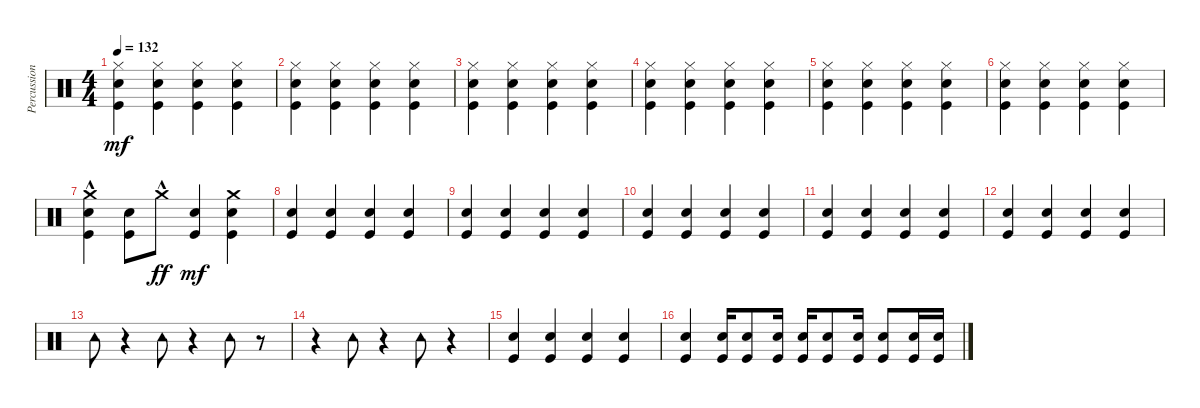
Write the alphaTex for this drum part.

\track ("Percussion" "Percussion") {instrument percussion}
\staff {score}
\articulation defaults
\ts (4 4)
\tempo 132
\clef neutral
\ks c
("Hi-Hat (closed)" "Snare (hit) 2" "Kick (hit)").4{dy mf} ("Hi-Hat (closed)" "Kick (hit)" "Snare (hit) 2").4 ("Hi-Hat (closed)" "Kick (hit)" "Snare (hit) 2").4 ("Hi-Hat (closed)" "Kick (hit)" "Snare (hit) 2").4 |
("Hi-Hat (closed)" "Kick (hit)" "Snare (hit) 2").4 ("Hi-Hat (closed)" "Kick (hit)" "Snare (hit) 2").4 ("Hi-Hat (closed)" "Kick (hit)" "Snare (hit) 2").4 ("Hi-Hat (closed)" "Kick (hit)" "Snare (hit) 2").4 |
("Hi-Hat (closed)" "Snare (hit) 2" "Kick (hit)").4 ("Hi-Hat (closed)" "Kick (hit)" "Snare (hit) 2").4 ("Hi-Hat (closed)" "Kick (hit)" "Snare (hit) 2").4 ("Hi-Hat (closed)" "Kick (hit)" "Snare (hit) 2").4 |
("Hi-Hat (closed)" "Kick (hit)" "Snare (hit) 2").4 ("Hi-Hat (closed)" "Kick (hit)" "Snare (hit) 2").4 ("Hi-Hat (closed)" "Kick (hit)" "Snare (hit) 2").4 ("Hi-Hat (closed)" "Kick (hit)" "Snare (hit) 2").4 |
("Hi-Hat (closed)" "Snare (hit) 2" "Kick (hit)").4 ("Hi-Hat (closed)" "Kick (hit)" "Snare (hit) 2").4 ("Hi-Hat (closed)" "Kick (hit)" "Snare (hit) 2").4 ("Hi-Hat (closed)" "Kick (hit)" "Snare (hit) 2").4 |
("Hi-Hat (closed)" "Kick (hit)" "Snare (hit) 2").4 ("Hi-Hat (closed)" "Kick (hit)" "Snare (hit) 2").4 ("Hi-Hat (closed)" "Kick (hit)" "Snare (hit) 2").4 ("Hi-Hat (closed)" "Kick (hit)" "Snare (hit) 2").4 |
("Crash medium (hit)"{hac} "Kick (hit)" "Snare (hit) 2").4 ("Kick (hit)" "Snare (hit) 2").8 "Crash medium (hit)"{hac}.8{dy ff} ("Kick (hit)" "Snare (hit) 2").4{dy mf} ("Crash medium (hit)" "Kick (hit)" "Snare (hit) 2").4 |
("Kick (hit)" "Snare (hit) 2").4 ("Kick (hit)" "Snare (hit) 2").4 ("Kick (hit)" "Snare (hit) 2").4 ("Kick (hit)" "Snare (hit) 2").4 |
("Kick (hit)" "Snare (hit) 2").4 ("Kick (hit)" "Snare (hit) 2").4 ("Kick (hit)" "Snare (hit) 2").4 ("Kick (hit)" "Snare (hit) 2").4 |
("Kick (hit)" "Snare (hit) 2").4 ("Kick (hit)" "Snare (hit) 2").4 ("Kick (hit)" "Snare (hit) 2").4 ("Kick (hit)" "Snare (hit) 2").4 |
("Snare (hit) 2" "Kick (hit)").4 ("Kick (hit)" "Snare (hit) 2").4 ("Snare (hit) 2" "Kick (hit)").4 ("Kick (hit)" "Snare (hit) 2").4 |
("Snare (hit) 2" "Kick (hit)").4 ("Kick (hit)" "Snare (hit) 2").4 ("Kick (hit)" "Snare (hit) 2").4 ("Kick (hit)" "Snare (hit) 2").4 |
"Tambourine (hit)".8 r.4 "Tambourine (hit)".8 r.4 "Tambourine (hit)".8 r.8 |
r.4 "Tambourine (hit)".8 r.4 "Tambourine (hit)".8 r.4 |
("Snare (hit) 2" "Kick (hit)").4 ("Snare (hit) 2" "Kick (hit)").4 ("Snare (hit) 2" "Kick (hit)").4 ("Kick (hit)" "Snare (hit) 2").4 |
("Kick (hit)" "Snare (hit) 2").4 ("Kick (hit)" "Snare (hit) 2").16 ("Snare (hit) 2" "Kick (hit)").8 ("Kick (hit)" "Snare (hit) 2").16 ("Snare (hit) 2" "Kick (hit)").16 ("Snare (hit) 2" "Kick (hit)").8 ("Kick (hit)" "Snare (hit) 2").16 ("Kick (hit)" "Snare (hit) 2").8 ("Kick (hit)" "Snare (hit) 2").16 ("Kick (hit)" "Snare (hit) 2").16
